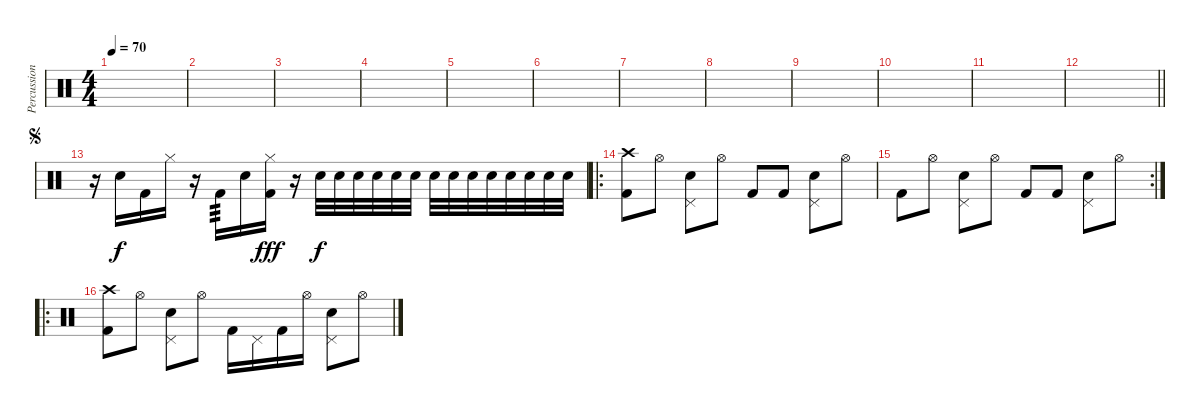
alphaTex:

\track ("Percussion" "Percussion") {instrument percussion}
\staff {score}
\articulation defaults
\ts (4 4)
\tempo 70
\clef neutral
\ks c
|
|
|
|
|
|
|
|
|
|
|
\barLineRight lightlight
|
\jump segno
r.16 "Snare (hit) 2".16 "Kick (hit) 2".16 "Hi-Hat (closed)".16 r.16 "Kick (hit) 2".16{tp 3} "Snare (hit) 2".16 ("Kick (hit) 2" "Hi-Hat (closed)").16{dy fff} r.16 "Snare (hit) 2".32{dy f} "Snare (hit) 2".32 "Snare (hit) 2".32 "Snare (hit) 2".32 "Snare (hit) 2".32 "Snare (hit) 2".32 "Snare (hit) 2".32 "Snare (hit) 2".32 "Snare (hit) 2".32 "Snare (hit) 2".32 "Snare (hit) 2".32 "Snare (hit) 2".32 "Snare (hit) 2".32 "Snare (hit) 2".32 |
\ro
("Crash high (hit)" "Kick (hit) 2").8 "Hi-Hat (open)".8 ("Pedal Hi-Hat (hit)" "Snare (hit) 2").8 "Hi-Hat (open)".8 "Kick (hit) 2".8 "Kick (hit) 2".8 ("Pedal Hi-Hat (hit)" "Snare (hit) 2").8 "Hi-Hat (open)".8 |
\rc 2 "Kick (hit) 2".8 "Hi-Hat (open)".8
("Pedal Hi-Hat (hit)" "Snare (hit) 2").8 "Hi-Hat (open)".8 "Kick (hit) 2".8 "Kick (hit) 2".8 ("Pedal Hi-Hat (hit)" "Snare (hit) 2").8 "Hi-Hat (open)".8 |
\ro
("Crash high (hit)" "Kick (hit) 2").8 "Hi-Hat (open)".8 ("Pedal Hi-Hat (hit)" "Snare (hit) 2").8 "Hi-Hat (open)".8 "Kick (hit) 2".16 "Pedal Hi-Hat (hit)".16 "Kick (hit) 2".16 "Hi-Hat (open)".16 ("Pedal Hi-Hat (hit)" "Snare (hit) 2").8 "Hi-Hat (open)".8
